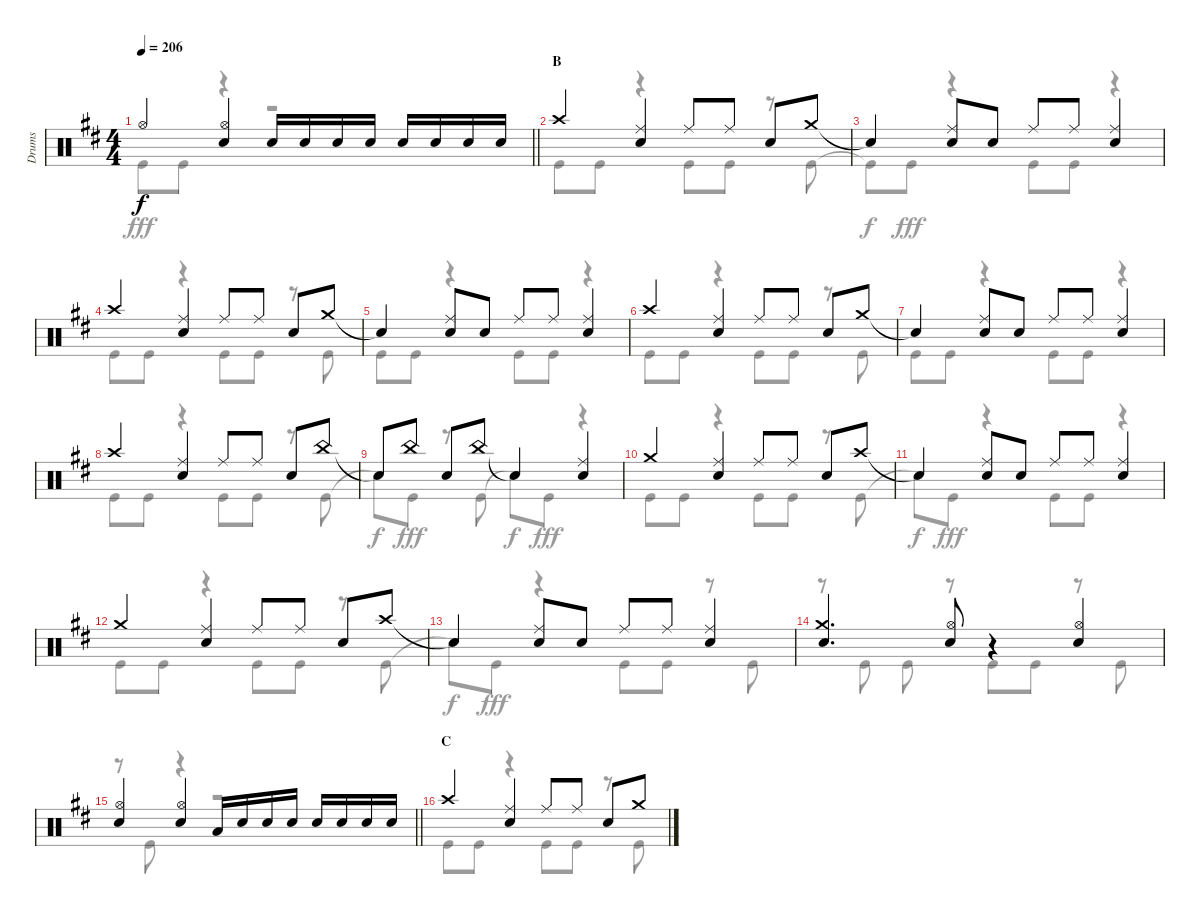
\track ("Drums" "Drums") {instrument percussion}
\staff {score}
\articulation defaults
\voice
\ts (4 4)
\tempo 206
\clef neutral
\barLineRight lightlight
\ks d "Hi-Hat (open)".4{dy f}
("Hi-Hat (open)" "Snare (hit) 2").4 "Snare (hit) 2".16 "Snare (hit) 2".16 "Snare (hit) 2".16 "Snare (hit) 2".16 "Snare (hit) 2".16 "Snare (hit) 2".16 "Snare (hit) 2".16 "Snare (hit) 2".16 |
\section ("" "B")
"Crash high (hit)".4 ("Ride (middle)" "Snare (hit) 2").4 "Ride (middle)".8 "Ride (middle)".8 "Snare (hit) 2".8 "Crash medium (hit)".8 |
"Snare (hit)"{t}.4 ("Ride (middle)" "Snare (hit) 2").8 "Snare (hit) 2".8 "Ride (middle)".8 "Ride (middle)".8 ("Ride (middle)" "Snare (hit) 2").4 |
"Crash high (hit)".4 ("Ride (middle)" "Snare (hit) 2").4 "Ride (middle)".8 "Ride (middle)".8 "Snare (hit) 2".8 "Crash medium (hit)".8 |
"Snare (hit)"{t}.4 ("Ride (middle)" "Snare (hit) 2").8 "Snare (hit) 2".8 "Ride (middle)".8 "Ride (middle)".8 ("Ride (middle)" "Snare (hit) 2").4 |
"Crash high (hit)".4 ("Ride (middle)" "Snare (hit) 2").4 "Ride (middle)".8 "Ride (middle)".8 "Snare (hit) 2".8 "Crash medium (hit)".8 |
"Snare (hit)"{t}.4 ("Ride (middle)" "Snare (hit) 2").8 "Snare (hit) 2".8 "Ride (middle)".8 "Ride (middle)".8 ("Ride (middle)" "Snare (hit) 2").4 |
"Crash high (hit)".4 ("Ride (middle)" "Snare (hit) 2").4 "Ride (middle)".8 "Ride (middle)".8 "Snare (hit) 2".8 "China (hit)".8 |
"Snare (hit)"{t}.8 "China (hit)".8 "Snare (hit) 2".8 "China (hit)".8 "Snare (hit)"{t}.4 ("Ride (middle)" "Snare (hit) 2").4 |
"Crash medium (hit)".4 ("Ride (middle)" "Snare (hit) 2").4 "Ride (middle)".8 "Ride (middle)".8 "Snare (hit) 2".8 "Crash high (hit)".8 |
"Snare (hit)"{t}.4 ("Ride (middle)" "Snare (hit) 2").8 "Snare (hit) 2".8 "Ride (middle)".8 "Ride (middle)".8 ("Ride (middle)" "Snare (hit) 2").4 |
"Crash medium (hit)".4 ("Ride (middle)" "Snare (hit) 2").4 "Ride (middle)".8 "Ride (middle)".8 "Snare (hit) 2".8 "Crash high (hit)".8 |
"Snare (hit)"{t}.4 ("Ride (middle)" "Snare (hit) 2").8 "Snare (hit) 2".8 "Ride (middle)".8 "Ride (middle)".8 ("Ride (middle)" "Snare (hit) 2").4 |
("Crash medium (hit)" "Snare (hit) 2").4{d} ("Hi-Hat (open)" "Snare (hit) 2").8 r.4 ("Hi-Hat (open)" "Snare (hit) 2").4 |
\barLineRight lightlight
("Hi-Hat (open)" "Snare (hit) 2").4 ("Hi-Hat (open)" "Snare (hit) 2").4 "Low Tom (hit)".16 "Snare (hit) 2".16 "Snare (hit) 2".16 "Snare (hit) 2".16 "Snare (hit) 2".16 "Snare (hit) 2".16 "Snare (hit) 2".16 "Snare (hit) 2".16 |
\section ("" "C")
"Crash high (hit)".4 ("Ride (middle)" "Snare (hit) 2").4 "Ride (middle)".8 "Ride (middle)".8 "Snare (hit) 2".8 "Crash medium (hit)".8
\voice
\clef neutral
\ottava regular
\simile none
\barLineRight lightlight
\ks d "Kick (hit)".8{dy fff} "Kick (hit)".8
r.4 r.2 |
"Kick (hit)".8 "Kick (hit)".8 r.4 "Kick (hit)".8 "Kick (hit)".8 r.8 "Kick (hit)".8 |
"Kick (hit)"{t}.8{dy f} "Kick (hit)".8{dy fff} r.4 "Kick (hit)".8 "Kick (hit)".8 r.4 |
"Kick (hit)".8 "Kick (hit)".8 r.4 "Kick (hit)".8 "Kick (hit)".8 r.8 "Kick (hit)".8 |
"Kick (hit)".8 "Kick (hit)".8 r.4 "Kick (hit)".8 "Kick (hit)".8 r.4 |
"Kick (hit)".8 "Kick (hit)".8 r.4 "Kick (hit)".8 "Kick (hit)".8 r.8 "Kick (hit)".8 |
"Kick (hit)".8 "Kick (hit)".8 r.4 "Kick (hit)".8 "Kick (hit)".8 r.4 |
"Kick (hit)".8 "Kick (hit)".8 r.4 "Kick (hit)".8 "Kick (hit)".8 r.8 "Kick (hit)".8 |
"Snare (hit)"{t}.8{dy f} "Kick (hit)".8{dy fff} r.8 "Kick (hit)".8 "Snare (hit)"{t}.8{dy f} "Kick (hit)".8{dy fff} r.4 |
"Kick (hit)".8 "Kick (hit)".8 r.4 "Kick (hit)".8 "Kick (hit)".8 r.8 "Kick (hit)".8 |
"Snare (hit)"{t}.8{dy f} "Kick (hit)".8{dy fff} r.4 "Kick (hit)".8 "Kick (hit)".8 r.4 |
"Kick (hit)".8 "Kick (hit)".8 r.4 "Kick (hit)".8 "Kick (hit)".8 r.8 "Kick (hit)".8 |
"Snare (hit)"{t}.8{dy f} "Kick (hit)".8{dy fff} r.4 "Kick (hit)".8 "Kick (hit)".8 r.8 "Kick (hit)".8 |
r.8 "Kick (hit)".8 "Kick (hit)".8 r.8 "Kick (hit)".8 "Kick (hit)".8 r.8 "Kick (hit)".8 |
\barLineRight lightlight
r.8 "Kick (hit)".8 r.4 r.2 |
"Kick (hit)".8 "Kick (hit)".8 r.4 "Kick (hit)".8 "Kick (hit)".8 r.8 "Kick (hit)".8
